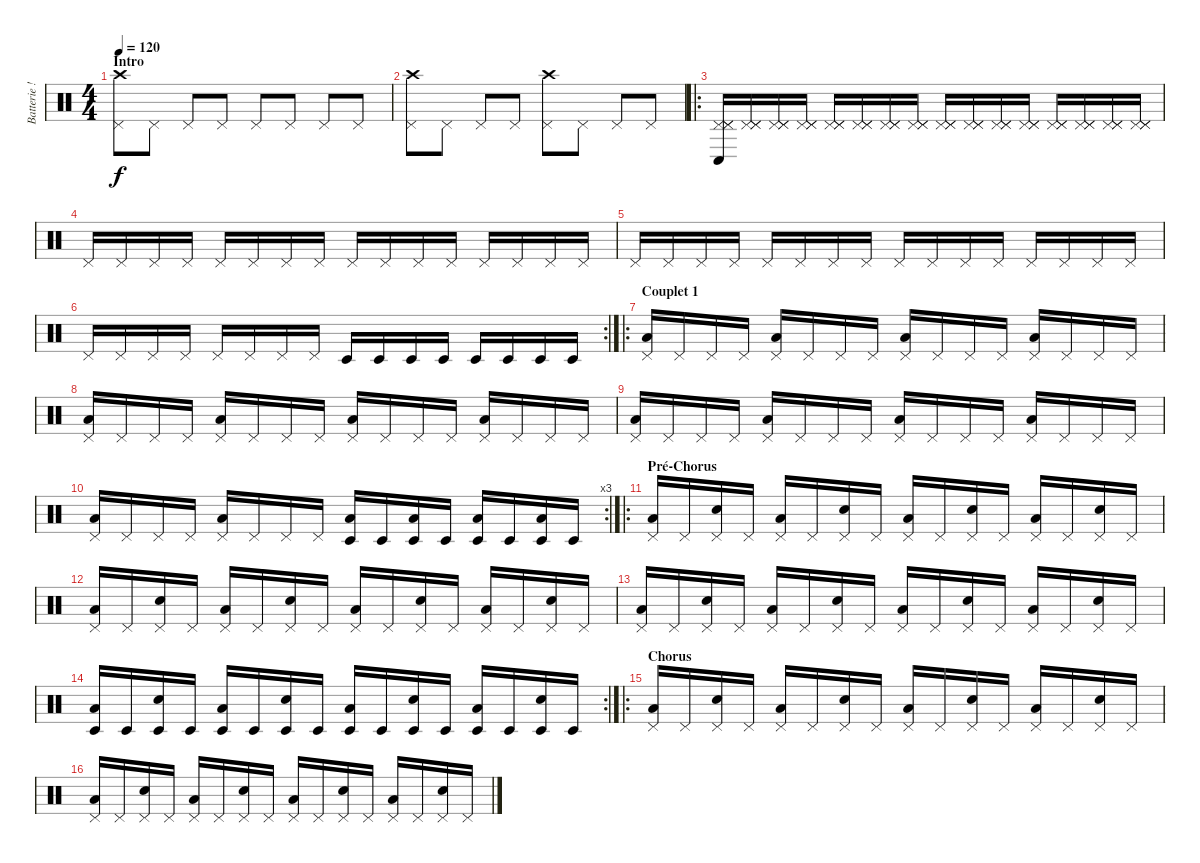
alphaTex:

\track ("Batterie !!" "Batterie !") {instrument percussion}
\staff {score}
\articulation defaults
\ts (4 4)
\section ("" "Intro")
\tempo 120
\clef neutral
\ks c
("Crash high (hit)" "Pedal Hi-Hat (hit)").8{dy f} "Pedal Hi-Hat (hit)".8 "Pedal Hi-Hat (hit)".8 "Pedal Hi-Hat (hit)".8 "Pedal Hi-Hat (hit)".8 "Pedal Hi-Hat (hit)".8 "Pedal Hi-Hat (hit)".8 "Pedal Hi-Hat (hit)".8 |
("Crash high (hit)" "Pedal Hi-Hat (hit)").8 "Pedal Hi-Hat (hit)".8 "Pedal Hi-Hat (hit)".8 "Pedal Hi-Hat (hit)".8 ("Crash high (hit)" "Pedal Hi-Hat (hit)").8 "Pedal Hi-Hat (hit)".8 "Pedal Hi-Hat (hit)".8 "Pedal Hi-Hat (hit)".8 |
\ro
("Conga low (hit)" "Pedal Hi-Hat (hit)" "Pedal Hi-Hat (hit)" "Pedal Hi-Hat (hit)").16 ("Pedal Hi-Hat (hit)" "Pedal Hi-Hat (hit)" "Pedal Hi-Hat (hit)").16 ("Pedal Hi-Hat (hit)" "Pedal Hi-Hat (hit)" "Pedal Hi-Hat (hit)").16 ("Pedal Hi-Hat (hit)" "Pedal Hi-Hat (hit)" "Pedal Hi-Hat (hit)").16 ("Pedal Hi-Hat (hit)" "Pedal Hi-Hat (hit)" "Pedal Hi-Hat (hit)").16 ("Pedal Hi-Hat (hit)" "Pedal Hi-Hat (hit)" "Pedal Hi-Hat (hit)").16 ("Pedal Hi-Hat (hit)" "Pedal Hi-Hat (hit)" "Pedal Hi-Hat (hit)").16 ("Pedal Hi-Hat (hit)" "Pedal Hi-Hat (hit)" "Pedal Hi-Hat (hit)").16 ("Pedal Hi-Hat (hit)" "Pedal Hi-Hat (hit)" "Pedal Hi-Hat (hit)").16 ("Pedal Hi-Hat (hit)" "Pedal Hi-Hat (hit)" "Pedal Hi-Hat (hit)").16 ("Pedal Hi-Hat (hit)" "Pedal Hi-Hat (hit)" "Pedal Hi-Hat (hit)").16 ("Pedal Hi-Hat (hit)" "Pedal Hi-Hat (hit)" "Pedal Hi-Hat (hit)").16 ("Pedal Hi-Hat (hit)" "Pedal Hi-Hat (hit)" "Pedal Hi-Hat (hit)").16 ("Pedal Hi-Hat (hit)" "Pedal Hi-Hat (hit)" "Pedal Hi-Hat (hit)").16 ("Pedal Hi-Hat (hit)" "Pedal Hi-Hat (hit)" "Pedal Hi-Hat (hit)").16 ("Pedal Hi-Hat (hit)" "Pedal Hi-Hat (hit)" "Pedal Hi-Hat (hit)").16 |
"Pedal Hi-Hat (hit)".16 "Pedal Hi-Hat (hit)".16 "Pedal Hi-Hat (hit)".16 "Pedal Hi-Hat (hit)".16 "Pedal Hi-Hat (hit)".16 "Pedal Hi-Hat (hit)".16 "Pedal Hi-Hat (hit)".16 "Pedal Hi-Hat (hit)".16 "Pedal Hi-Hat (hit)".16 "Pedal Hi-Hat (hit)".16 "Pedal Hi-Hat (hit)".16 "Pedal Hi-Hat (hit)".16 "Pedal Hi-Hat (hit)".16 "Pedal Hi-Hat (hit)".16 "Pedal Hi-Hat (hit)".16 "Pedal Hi-Hat (hit)".16 |
"Pedal Hi-Hat (hit)".16 "Pedal Hi-Hat (hit)".16 "Pedal Hi-Hat (hit)".16 "Pedal Hi-Hat (hit)".16 "Pedal Hi-Hat (hit)".16 "Pedal Hi-Hat (hit)".16 "Pedal Hi-Hat (hit)".16 "Pedal Hi-Hat (hit)".16 "Pedal Hi-Hat (hit)".16 "Pedal Hi-Hat (hit)".16 "Pedal Hi-Hat (hit)".16 "Pedal Hi-Hat (hit)".16 "Pedal Hi-Hat (hit)".16 "Pedal Hi-Hat (hit)".16 "Pedal Hi-Hat (hit)".16 "Pedal Hi-Hat (hit)".16 |
\rc 2 "Pedal Hi-Hat (hit)".16 "Pedal Hi-Hat (hit)".16 "Pedal Hi-Hat (hit)".16 "Pedal Hi-Hat (hit)".16 "Pedal Hi-Hat (hit)".16 "Pedal Hi-Hat (hit)".16 "Pedal Hi-Hat (hit)".16 "Pedal Hi-Hat (hit)".16 "Timbale low (hit)".16 "Timbale low (hit)".16 "Timbale low (hit)".16 "Timbale low (hit)".16 "Timbale low (hit)".16 "Timbale low (hit)".16 "Timbale low (hit)".16 "Timbale low (hit)".16
|
\ro
\section ("" "Couplet 1")
("Pedal Hi-Hat (hit)" "Low Floor Tom (hit)").16 "Pedal Hi-Hat (hit)".16 "Pedal Hi-Hat (hit)".16 "Pedal Hi-Hat (hit)".16 ("Pedal Hi-Hat (hit)" "Low Floor Tom (hit)").16 "Pedal Hi-Hat (hit)".16 "Pedal Hi-Hat (hit)".16 "Pedal Hi-Hat (hit)".16 ("Pedal Hi-Hat (hit)" "Low Floor Tom (hit)").16 "Pedal Hi-Hat (hit)".16 "Pedal Hi-Hat (hit)".16 "Pedal Hi-Hat (hit)".16 ("Pedal Hi-Hat (hit)" "Low Floor Tom (hit)").16 "Pedal Hi-Hat (hit)".16 "Pedal Hi-Hat (hit)".16 "Pedal Hi-Hat (hit)".16 |
("Pedal Hi-Hat (hit)" "Low Floor Tom (hit)").16 "Pedal Hi-Hat (hit)".16 "Pedal Hi-Hat (hit)".16 "Pedal Hi-Hat (hit)".16 ("Pedal Hi-Hat (hit)" "Low Floor Tom (hit)").16 "Pedal Hi-Hat (hit)".16 "Pedal Hi-Hat (hit)".16 "Pedal Hi-Hat (hit)".16 ("Pedal Hi-Hat (hit)" "Low Floor Tom (hit)").16 "Pedal Hi-Hat (hit)".16 "Pedal Hi-Hat (hit)".16 "Pedal Hi-Hat (hit)".16 ("Pedal Hi-Hat (hit)" "Low Floor Tom (hit)").16 "Pedal Hi-Hat (hit)".16 "Pedal Hi-Hat (hit)".16 "Pedal Hi-Hat (hit)".16 |
("Pedal Hi-Hat (hit)" "Low Floor Tom (hit)").16 "Pedal Hi-Hat (hit)".16 "Pedal Hi-Hat (hit)".16 "Pedal Hi-Hat (hit)".16 ("Pedal Hi-Hat (hit)" "Low Floor Tom (hit)").16 "Pedal Hi-Hat (hit)".16 "Pedal Hi-Hat (hit)".16 "Pedal Hi-Hat (hit)".16 ("Pedal Hi-Hat (hit)" "Low Floor Tom (hit)").16 "Pedal Hi-Hat (hit)".16 "Pedal Hi-Hat (hit)".16 "Pedal Hi-Hat (hit)".16 ("Pedal Hi-Hat (hit)" "Low Floor Tom (hit)").16 "Pedal Hi-Hat (hit)".16 "Pedal Hi-Hat (hit)".16 "Pedal Hi-Hat (hit)".16 |
\rc 3
("Pedal Hi-Hat (hit)" "Low Floor Tom (hit)").16 "Pedal Hi-Hat (hit)".16 "Pedal Hi-Hat (hit)".16 "Pedal Hi-Hat (hit)".16 ("Pedal Hi-Hat (hit)" "Low Floor Tom (hit)").16 "Pedal Hi-Hat (hit)".16 "Pedal Hi-Hat (hit)".16 "Pedal Hi-Hat (hit)".16 ("Timbale low (hit)" "Low Floor Tom (hit)").16 "Timbale low (hit)".16 ("Timbale low (hit)" "Low Floor Tom (hit)").16 "Timbale low (hit)".16 ("Timbale low (hit)" "Low Floor Tom (hit)").16 "Timbale low (hit)".16 ("Timbale low (hit)" "Low Floor Tom (hit)").16 "Timbale low (hit)".16 |
\ro
\section ("" "Pré-Chorus")
("Pedal Hi-Hat (hit)" "Low Floor Tom (hit)").16 "Pedal Hi-Hat (hit)".16 ("Pedal Hi-Hat (hit)" "Electric Snare (hit)").16 "Pedal Hi-Hat (hit)".16 ("Pedal Hi-Hat (hit)" "Low Floor Tom (hit)").16 "Pedal Hi-Hat (hit)".16 ("Pedal Hi-Hat (hit)" "Electric Snare (hit)").16 "Pedal Hi-Hat (hit)".16 ("Pedal Hi-Hat (hit)" "Low Floor Tom (hit)").16 "Pedal Hi-Hat (hit)".16 ("Pedal Hi-Hat (hit)" "Electric Snare (hit)").16 "Pedal Hi-Hat (hit)".16 ("Pedal Hi-Hat (hit)" "Low Floor Tom (hit)").16 "Pedal Hi-Hat (hit)".16 ("Pedal Hi-Hat (hit)" "Electric Snare (hit)").16 "Pedal Hi-Hat (hit)".16 |
("Pedal Hi-Hat (hit)" "Low Floor Tom (hit)").16 "Pedal Hi-Hat (hit)".16 ("Pedal Hi-Hat (hit)" "Electric Snare (hit)").16 "Pedal Hi-Hat (hit)".16 ("Pedal Hi-Hat (hit)" "Low Floor Tom (hit)").16 "Pedal Hi-Hat (hit)".16 ("Pedal Hi-Hat (hit)" "Electric Snare (hit)").16 "Pedal Hi-Hat (hit)".16 ("Pedal Hi-Hat (hit)" "Low Floor Tom (hit)").16 "Pedal Hi-Hat (hit)".16 ("Pedal Hi-Hat (hit)" "Electric Snare (hit)").16 "Pedal Hi-Hat (hit)".16 ("Pedal Hi-Hat (hit)" "Low Floor Tom (hit)").16 "Pedal Hi-Hat (hit)".16 ("Pedal Hi-Hat (hit)" "Electric Snare (hit)").16 "Pedal Hi-Hat (hit)".16 |
("Pedal Hi-Hat (hit)" "Low Floor Tom (hit)").16 "Pedal Hi-Hat (hit)".16 ("Pedal Hi-Hat (hit)" "Electric Snare (hit)").16 "Pedal Hi-Hat (hit)".16 ("Pedal Hi-Hat (hit)" "Low Floor Tom (hit)").16 "Pedal Hi-Hat (hit)".16 ("Pedal Hi-Hat (hit)" "Electric Snare (hit)").16 "Pedal Hi-Hat (hit)".16 ("Pedal Hi-Hat (hit)" "Low Floor Tom (hit)").16 "Pedal Hi-Hat (hit)".16 ("Pedal Hi-Hat (hit)" "Electric Snare (hit)").16 "Pedal Hi-Hat (hit)".16 ("Pedal Hi-Hat (hit)" "Low Floor Tom (hit)").16 "Pedal Hi-Hat (hit)".16 ("Pedal Hi-Hat (hit)" "Electric Snare (hit)").16 "Pedal Hi-Hat (hit)".16 |
\rc 2
("Timbale low (hit)" "Low Floor Tom (hit)").16 "Timbale low (hit)".16 ("Timbale low (hit)" "Electric Snare (hit)").16 "Timbale low (hit)".16 ("Timbale low (hit)" "Low Floor Tom (hit)").16 "Timbale low (hit)".16 ("Timbale low (hit)" "Electric Snare (hit)").16 "Timbale low (hit)".16 ("Timbale low (hit)" "Low Floor Tom (hit)").16 "Timbale low (hit)".16 ("Timbale low (hit)" "Electric Snare (hit)").16 "Timbale low (hit)".16 ("Timbale low (hit)" "Low Floor Tom (hit)").16 "Timbale low (hit)".16 ("Timbale low (hit)" "Electric Snare (hit)").16 "Timbale low (hit)".16 |
\ro
\section ("" "Chorus")
("Pedal Hi-Hat (hit)" "Low Floor Tom (hit)").16 "Pedal Hi-Hat (hit)".16 ("Pedal Hi-Hat (hit)" "Electric Snare (hit)").16 "Pedal Hi-Hat (hit)".16 ("Pedal Hi-Hat (hit)" "Low Floor Tom (hit)").16 "Pedal Hi-Hat (hit)".16 ("Pedal Hi-Hat (hit)" "Electric Snare (hit)").16 "Pedal Hi-Hat (hit)".16 ("Pedal Hi-Hat (hit)" "Low Floor Tom (hit)").16 "Pedal Hi-Hat (hit)".16 ("Pedal Hi-Hat (hit)" "Electric Snare (hit)").16 "Pedal Hi-Hat (hit)".16 ("Pedal Hi-Hat (hit)" "Low Floor Tom (hit)").16 "Pedal Hi-Hat (hit)".16 ("Pedal Hi-Hat (hit)" "Electric Snare (hit)").16 "Pedal Hi-Hat (hit)".16 |
("Pedal Hi-Hat (hit)" "Low Floor Tom (hit)").16 "Pedal Hi-Hat (hit)".16 ("Pedal Hi-Hat (hit)" "Electric Snare (hit)").16 "Pedal Hi-Hat (hit)".16 ("Pedal Hi-Hat (hit)" "Low Floor Tom (hit)").16 "Pedal Hi-Hat (hit)".16 ("Pedal Hi-Hat (hit)" "Electric Snare (hit)").16 "Pedal Hi-Hat (hit)".16 ("Pedal Hi-Hat (hit)" "Low Floor Tom (hit)").16 "Pedal Hi-Hat (hit)".16 ("Pedal Hi-Hat (hit)" "Electric Snare (hit)").16 "Pedal Hi-Hat (hit)".16 ("Pedal Hi-Hat (hit)" "Low Floor Tom (hit)").16 "Pedal Hi-Hat (hit)".16 ("Pedal Hi-Hat (hit)" "Electric Snare (hit)").16 "Pedal Hi-Hat (hit)".16
